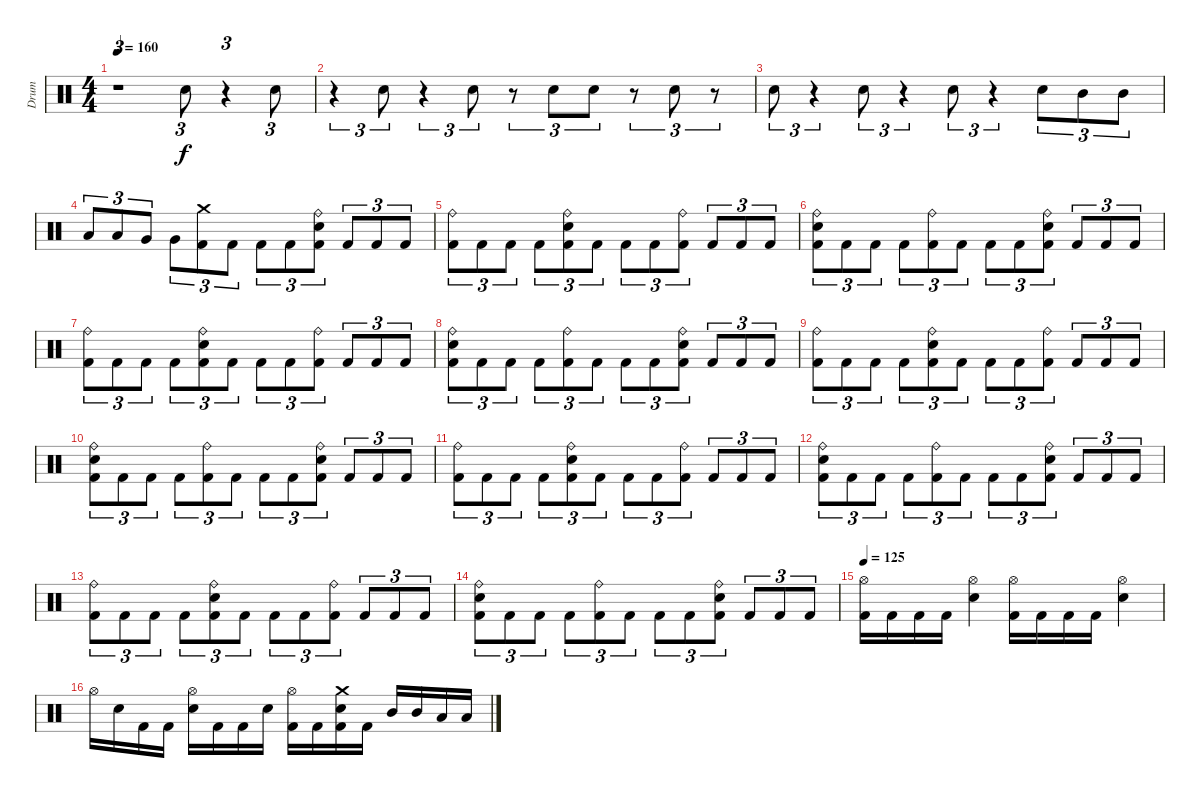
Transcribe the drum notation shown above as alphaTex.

\track ("Drum" "Drum") {instrument percussion}
\staff {score}
\articulation defaults
\ts (4 4)
\tempo 160
\clef neutral
\ks c
r.1{tu (3 2) dy f} "Snare (hit) 2".8{tu (3 2)} r.4{tu (3 2)} "Snare (hit) 2".8{tu (3 2)} |
r.4{tu (3 2)} "Snare (hit) 2".8{tu (3 2)} r.4{tu (3 2)} "Snare (hit) 2".8{tu (3 2)} r.8{tu (3 2)} "Snare (hit) 2".8{tu (3 2)} "Snare (hit) 2".8{tu (3 2)} r.8{tu (3 2)} "Snare (hit) 2".8{tu (3 2)} r.8{tu (3 2)} |
"Snare (hit) 2".8{tu (3 2)} r.4{tu (3 2)} "Snare (hit) 2".8{tu (3 2)} r.4{tu (3 2)} "Snare (hit) 2".8{tu (3 2)} r.4{tu (3 2)} "Snare (hit) 2".8{tu (3 2)} "Mid Tom (hit)".8{tu (3 2)} "Mid Tom (hit)".8{tu (3 2)} |
"Low Tom (hit)".8{tu (3 2)} "Low Tom (hit)".8{tu (3 2)} "Very Low Tom (hit)".8{tu (3 2)} "Very Low Tom (hit)".8{tu (3 2)} ("Kick (hit) 2" "Crash medium (hit)").8{tu (3 2)} "Kick (hit) 2".8{tu (3 2)} "Kick (hit) 2".8{tu (3 2)} "Kick (hit) 2".8{tu (3 2)} ("Kick (hit) 2" "Snare (hit) 2" "Ride (bell)").8{tu (3 2)} "Kick (hit) 2".8{tu (3 2)} "Kick (hit) 2".8{tu (3 2)} "Kick (hit) 2".8{tu (3 2)} |
("Kick (hit) 2" "Ride (bell)").8{tu (3 2)} "Kick (hit) 2".8{tu (3 2)} "Kick (hit) 2".8{tu (3 2)} "Kick (hit) 2".8{tu (3 2)} ("Kick (hit) 2" "Snare (hit) 2" "Ride (bell)").8{tu (3 2)} "Kick (hit) 2".8{tu (3 2)} "Kick (hit) 2".8{tu (3 2)} "Kick (hit) 2".8{tu (3 2)} ("Kick (hit) 2" "Ride (bell)").8{tu (3 2)} "Kick (hit) 2".8{tu (3 2)} "Kick (hit) 2".8{tu (3 2)} "Kick (hit) 2".8{tu (3 2)} |
("Kick (hit) 2" "Snare (hit) 2" "Ride (bell)").8{tu (3 2)} "Kick (hit) 2".8{tu (3 2)} "Kick (hit) 2".8{tu (3 2)} "Kick (hit) 2".8{tu (3 2)} ("Kick (hit) 2" "Ride (bell)").8{tu (3 2)} "Kick (hit) 2".8{tu (3 2)} "Kick (hit) 2".8{tu (3 2)} "Kick (hit) 2".8{tu (3 2)} ("Kick (hit) 2" "Snare (hit) 2" "Ride (bell)").8{tu (3 2)} "Kick (hit) 2".8{tu (3 2)} "Kick (hit) 2".8{tu (3 2)} "Kick (hit) 2".8{tu (3 2)} |
("Kick (hit) 2" "Ride (bell)").8{tu (3 2)} "Kick (hit) 2".8{tu (3 2)} "Kick (hit) 2".8{tu (3 2)} "Kick (hit) 2".8{tu (3 2)} ("Kick (hit) 2" "Snare (hit) 2" "Ride (bell)").8{tu (3 2)} "Kick (hit) 2".8{tu (3 2)} "Kick (hit) 2".8{tu (3 2)} "Kick (hit) 2".8{tu (3 2)} ("Kick (hit) 2" "Ride (bell)").8{tu (3 2)} "Kick (hit) 2".8{tu (3 2)} "Kick (hit) 2".8{tu (3 2)} "Kick (hit) 2".8{tu (3 2)} |
("Kick (hit) 2" "Snare (hit) 2" "Ride (bell)").8{tu (3 2)} "Kick (hit) 2".8{tu (3 2)} "Kick (hit) 2".8{tu (3 2)} "Kick (hit) 2".8{tu (3 2)} ("Kick (hit) 2" "Ride (bell)").8{tu (3 2)} "Kick (hit) 2".8{tu (3 2)} "Kick (hit) 2".8{tu (3 2)} "Kick (hit) 2".8{tu (3 2)} ("Kick (hit) 2" "Snare (hit) 2" "Ride (bell)").8{tu (3 2)} "Kick (hit) 2".8{tu (3 2)} "Kick (hit) 2".8{tu (3 2)} "Kick (hit) 2".8{tu (3 2)} |
("Kick (hit) 2" "Ride (bell)").8{tu (3 2)} "Kick (hit) 2".8{tu (3 2)} "Kick (hit) 2".8{tu (3 2)} "Kick (hit) 2".8{tu (3 2)} ("Kick (hit) 2" "Snare (hit) 2" "Ride (bell)").8{tu (3 2)} "Kick (hit) 2".8{tu (3 2)} "Kick (hit) 2".8{tu (3 2)} "Kick (hit) 2".8{tu (3 2)} ("Kick (hit) 2" "Ride (bell)").8{tu (3 2)} "Kick (hit) 2".8{tu (3 2)} "Kick (hit) 2".8{tu (3 2)} "Kick (hit) 2".8{tu (3 2)} |
("Kick (hit) 2" "Snare (hit) 2" "Ride (bell)").8{tu (3 2)} "Kick (hit) 2".8{tu (3 2)} "Kick (hit) 2".8{tu (3 2)} "Kick (hit) 2".8{tu (3 2)} ("Kick (hit) 2" "Ride (bell)").8{tu (3 2)} "Kick (hit) 2".8{tu (3 2)} "Kick (hit) 2".8{tu (3 2)} "Kick (hit) 2".8{tu (3 2)} ("Kick (hit) 2" "Snare (hit) 2" "Ride (bell)").8{tu (3 2)} "Kick (hit) 2".8{tu (3 2)} "Kick (hit) 2".8{tu (3 2)} "Kick (hit) 2".8{tu (3 2)} |
("Kick (hit) 2" "Ride (bell)").8{tu (3 2)} "Kick (hit) 2".8{tu (3 2)} "Kick (hit) 2".8{tu (3 2)} "Kick (hit) 2".8{tu (3 2)} ("Kick (hit) 2" "Snare (hit) 2" "Ride (bell)").8{tu (3 2)} "Kick (hit) 2".8{tu (3 2)} "Kick (hit) 2".8{tu (3 2)} "Kick (hit) 2".8{tu (3 2)} ("Kick (hit) 2" "Ride (bell)").8{tu (3 2)} "Kick (hit) 2".8{tu (3 2)} "Kick (hit) 2".8{tu (3 2)} "Kick (hit) 2".8{tu (3 2)} |
("Kick (hit) 2" "Snare (hit) 2" "Ride (bell)").8{tu (3 2)} "Kick (hit) 2".8{tu (3 2)} "Kick (hit) 2".8{tu (3 2)} "Kick (hit) 2".8{tu (3 2)} ("Kick (hit) 2" "Ride (bell)").8{tu (3 2)} "Kick (hit) 2".8{tu (3 2)} "Kick (hit) 2".8{tu (3 2)} "Kick (hit) 2".8{tu (3 2)} ("Kick (hit) 2" "Snare (hit) 2" "Ride (bell)").8{tu (3 2)} "Kick (hit) 2".8{tu (3 2)} "Kick (hit) 2".8{tu (3 2)} "Kick (hit) 2".8{tu (3 2)} |
("Kick (hit) 2" "Ride (bell)").8{tu (3 2)} "Kick (hit) 2".8{tu (3 2)} "Kick (hit) 2".8{tu (3 2)} "Kick (hit) 2".8{tu (3 2)} ("Kick (hit) 2" "Snare (hit) 2" "Ride (bell)").8{tu (3 2)} "Kick (hit) 2".8{tu (3 2)} "Kick (hit) 2".8{tu (3 2)} "Kick (hit) 2".8{tu (3 2)} ("Kick (hit) 2" "Ride (bell)").8{tu (3 2)} "Kick (hit) 2".8{tu (3 2)} "Kick (hit) 2".8{tu (3 2)} "Kick (hit) 2".8{tu (3 2)} |
("Kick (hit) 2" "Snare (hit) 2" "Ride (bell)").8{tu (3 2)} "Kick (hit) 2".8{tu (3 2)} "Kick (hit) 2".8{tu (3 2)} "Kick (hit) 2".8{tu (3 2)} ("Kick (hit) 2" "Ride (bell)").8{tu (3 2)} "Kick (hit) 2".8{tu (3 2)} "Kick (hit) 2".8{tu (3 2)} "Kick (hit) 2".8{tu (3 2)} ("Kick (hit) 2" "Snare (hit) 2" "Ride (bell)").8{tu (3 2)} "Kick (hit) 2".8{tu (3 2)} "Kick (hit) 2".8{tu (3 2)} "Kick (hit) 2".8{tu (3 2)} |
\tempo 125
("Kick (hit) 2" "Hi-Hat (open)").16 "Kick (hit) 2".16 "Kick (hit) 2".16 "Kick (hit) 2".16 ("Snare (hit) 2" "Hi-Hat (open)").4 ("Kick (hit) 2" "Hi-Hat (open)").16 "Kick (hit) 2".16 "Kick (hit) 2".16 "Kick (hit) 2".16 ("Snare (hit) 2" "Hi-Hat (open)").4 |
"Hi-Hat (open)".16 "Snare (hit) 2".16 "Kick (hit) 2".16 "Kick (hit) 2".16 ("Snare (hit) 2" "Hi-Hat (open)").16 "Kick (hit) 2".16 "Kick (hit) 2".16 "Snare (hit) 2".16 ("Kick (hit) 2" "Hi-Hat (open)").16 "Kick (hit) 2".16 ("Kick (hit) 2" "Snare (hit) 2" "Crash medium (hit)").16 "Kick (hit) 2".16 "Mid Tom (hit)".16 "Mid Tom (hit)".16 "Low Tom (hit)".16 "Low Tom (hit)".16
